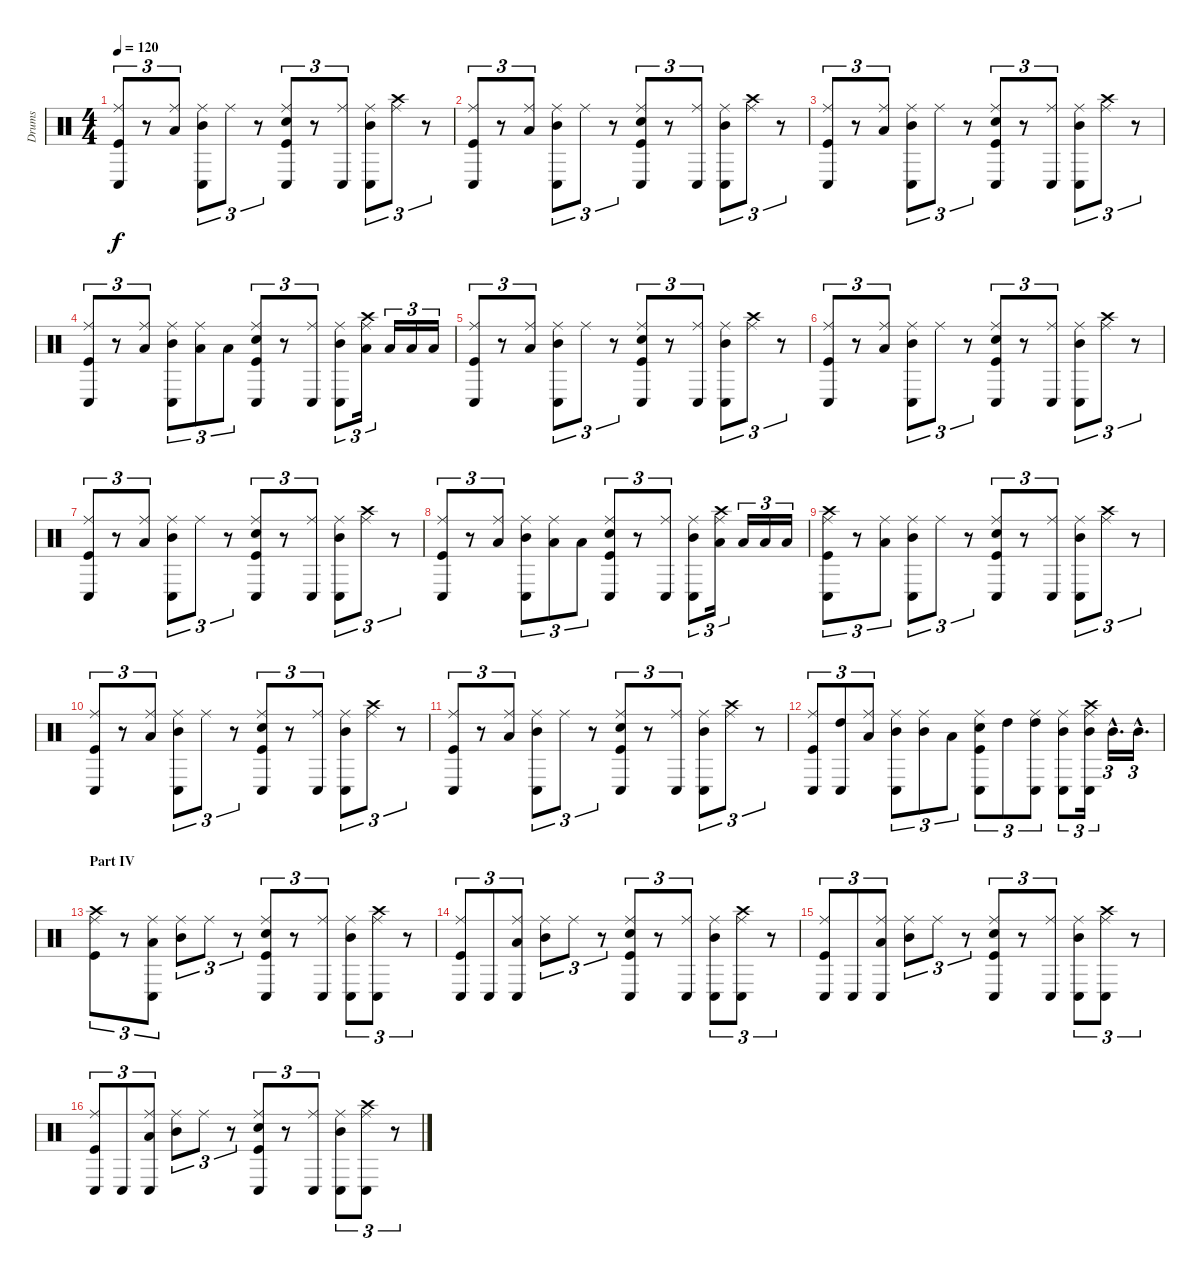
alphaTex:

\track ("Drums" "Drums") {instrument percussion}
\staff {score}
\articulation defaults
\ts (4 4)
\tempo 120
\clef neutral
\ks c
("Kick (hit)" "Ride (middle)" "Conga low (hit)").8{tu (3 2) dy f} r.8{tu (3 2)} ("Low Floor Tom (hit)" "Ride (middle)").8{tu (3 2)} ("Mid Tom (hit)" "Ride (middle)" "Conga low (hit)").8{tu (3 2)} "Ride (middle)".8{tu (3 2)} r.8{tu (3 2)} ("Kick (hit)" "Snare (hit) 2" "Ride (middle)" "Conga low (hit)").8{tu (3 2)} r.8{tu (3 2)} ("Ride (middle)" "Conga low (hit)").8{tu (3 2)} ("Mid Tom (hit)" "Ride (middle)" "Conga low (hit)").8{tu (3 2)} ("Ride (middle)" "Crash high (hit)").8{tu (3 2)} r.8{tu (3 2)} |
("Kick (hit)" "Ride (middle)" "Conga low (hit)").8{tu (3 2)} r.8{tu (3 2)} ("Low Floor Tom (hit)" "Ride (middle)").8{tu (3 2)} ("Mid Tom (hit)" "Ride (middle)" "Conga low (hit)").8{tu (3 2)} "Ride (middle)".8{tu (3 2)} r.8{tu (3 2)} ("Kick (hit)" "Snare (hit) 2" "Ride (middle)" "Conga low (hit)").8{tu (3 2)} r.8{tu (3 2)} ("Ride (middle)" "Conga low (hit)").8{tu (3 2)} ("Mid Tom (hit)" "Ride (middle)" "Conga low (hit)").8{tu (3 2)} ("Ride (middle)" "Crash high (hit)").8{tu (3 2)} r.8{tu (3 2)} |
("Kick (hit)" "Ride (middle)" "Conga low (hit)").8{tu (3 2)} r.8{tu (3 2)} ("Low Floor Tom (hit)" "Ride (middle)").8{tu (3 2)} ("Mid Tom (hit)" "Ride (middle)" "Conga low (hit)").8{tu (3 2)} "Ride (middle)".8{tu (3 2)} r.8{tu (3 2)} ("Kick (hit)" "Snare (hit) 2" "Ride (middle)" "Conga low (hit)").8{tu (3 2)} r.8{tu (3 2)} ("Ride (middle)" "Conga low (hit)").8{tu (3 2)} ("Mid Tom (hit)" "Ride (middle)" "Conga low (hit)").8{tu (3 2)} ("Ride (middle)" "Crash high (hit)").8{tu (3 2)} r.8{tu (3 2)} |
("Kick (hit)" "Ride (middle)" "Conga low (hit)").8{tu (3 2)} r.8{tu (3 2)} ("Low Floor Tom (hit)" "Ride (middle)").8{tu (3 2)} ("Mid Tom (hit)" "Ride (middle)" "Conga low (hit)").8{tu (3 2)} ("Low Tom (hit)" "Ride (middle)").8{tu (3 2)} "Low Tom (hit)".8{tu (3 2)} ("Kick (hit)" "Snare (hit) 2" "Ride (middle)" "Conga low (hit)").8{tu (3 2)} r.8{tu (3 2)} ("Ride (middle)" "Conga low (hit)").8{tu (3 2)} ("Mid Tom (hit)" "Ride (middle)" "Conga low (hit)").8{tu (3 2)} ("Low Tom (hit)" "Ride (middle)" "Crash high (hit)").16{tu (3 2)} "Low Tom (hit)".16{tu (3 2)} "Low Tom (hit)".16{tu (3 2)} "Low Tom (hit)".16{tu (3 2)} |
("Kick (hit)" "Ride (middle)" "Conga low (hit)").8{tu (3 2)} r.8{tu (3 2)} ("Low Floor Tom (hit)" "Ride (middle)").8{tu (3 2)} ("Mid Tom (hit)" "Ride (middle)" "Conga low (hit)").8{tu (3 2)} "Ride (middle)".8{tu (3 2)} r.8{tu (3 2)} ("Kick (hit)" "Snare (hit) 2" "Ride (middle)" "Conga low (hit)").8{tu (3 2)} r.8{tu (3 2)} ("Ride (middle)" "Conga low (hit)").8{tu (3 2)} ("Mid Tom (hit)" "Ride (middle)" "Conga low (hit)").8{tu (3 2)} ("Ride (middle)" "Crash high (hit)").8{tu (3 2)} r.8{tu (3 2)} |
("Kick (hit)" "Ride (middle)" "Conga low (hit)").8{tu (3 2)} r.8{tu (3 2)} ("Low Floor Tom (hit)" "Ride (middle)").8{tu (3 2)} ("Mid Tom (hit)" "Ride (middle)" "Conga low (hit)").8{tu (3 2)} "Ride (middle)".8{tu (3 2)} r.8{tu (3 2)} ("Kick (hit)" "Snare (hit) 2" "Ride (middle)" "Conga low (hit)").8{tu (3 2)} r.8{tu (3 2)} ("Ride (middle)" "Conga low (hit)").8{tu (3 2)} ("Mid Tom (hit)" "Ride (middle)" "Conga low (hit)").8{tu (3 2)} ("Ride (middle)" "Crash high (hit)").8{tu (3 2)} r.8{tu (3 2)} |
("Kick (hit)" "Ride (middle)" "Conga low (hit)").8{tu (3 2)} r.8{tu (3 2)} ("Low Floor Tom (hit)" "Ride (middle)").8{tu (3 2)} ("Mid Tom (hit)" "Ride (middle)" "Conga low (hit)").8{tu (3 2)} "Ride (middle)".8{tu (3 2)} r.8{tu (3 2)} ("Kick (hit)" "Snare (hit) 2" "Ride (middle)" "Conga low (hit)").8{tu (3 2)} r.8{tu (3 2)} ("Ride (middle)" "Conga low (hit)").8{tu (3 2)} ("Mid Tom (hit)" "Ride (middle)" "Conga low (hit)").8{tu (3 2)} ("Ride (middle)" "Crash high (hit)").8{tu (3 2)} r.8{tu (3 2)} |
("Kick (hit)" "Ride (middle)" "Conga low (hit)").8{tu (3 2)} r.8{tu (3 2)} ("Low Floor Tom (hit)" "Ride (middle)").8{tu (3 2)} ("Mid Tom (hit)" "Ride (middle)" "Conga low (hit)").8{tu (3 2)} ("Low Tom (hit)" "Ride (middle)").8{tu (3 2)} "Low Tom (hit)".8{tu (3 2)} ("Kick (hit)" "Snare (hit) 2" "Ride (middle)" "Conga low (hit)").8{tu (3 2)} r.8{tu (3 2)} ("Ride (middle)" "Conga low (hit)").8{tu (3 2)} ("Mid Tom (hit)" "Ride (middle)" "Conga low (hit)").8{tu (3 2)} ("Low Tom (hit)" "Ride (middle)" "Crash high (hit)").16{tu (3 2)} "Low Tom (hit)".16{tu (3 2)} "Low Tom (hit)".16{tu (3 2)} "Low Tom (hit)".16{tu (3 2)} |
("Kick (hit)" "Ride (middle)" "Crash high (hit)" "Conga low (hit)").8{tu (3 2)} r.8{tu (3 2)} ("Low Floor Tom (hit)" "Ride (middle)").8{tu (3 2)} ("Mid Tom (hit)" "Ride (middle)" "Conga low (hit)").8{tu (3 2)} "Ride (middle)".8{tu (3 2)} r.8{tu (3 2)} ("Kick (hit)" "Snare (hit) 2" "Ride (middle)" "Conga low (hit)").8{tu (3 2)} r.8{tu (3 2)} ("Ride (middle)" "Conga low (hit)").8{tu (3 2)} ("Mid Tom (hit)" "Ride (middle)" "Conga low (hit)").8{tu (3 2)} ("Ride (middle)" "Crash high (hit)").8{tu (3 2)} r.8{tu (3 2)} |
("Kick (hit)" "Ride (middle)" "Conga low (hit)").8{tu (3 2)} r.8{tu (3 2)} ("Low Floor Tom (hit)" "Ride (middle)").8{tu (3 2)} ("Mid Tom (hit)" "Ride (middle)" "Conga low (hit)").8{tu (3 2)} "Ride (middle)".8{tu (3 2)} r.8{tu (3 2)} ("Kick (hit)" "Snare (hit) 2" "Ride (middle)" "Conga low (hit)").8{tu (3 2)} r.8{tu (3 2)} ("Ride (middle)" "Conga low (hit)").8{tu (3 2)} ("Mid Tom (hit)" "Ride (middle)" "Conga low (hit)").8{tu (3 2)} ("Ride (middle)" "Crash high (hit)").8{tu (3 2)} r.8{tu (3 2)} |
("Kick (hit)" "Ride (middle)" "Conga low (hit)").8{tu (3 2)} r.8{tu (3 2)} ("Low Floor Tom (hit)" "Ride (middle)").8{tu (3 2)} ("Mid Tom (hit)" "Ride (middle)" "Conga low (hit)").8{tu (3 2)} "Ride (middle)".8{tu (3 2)} r.8{tu (3 2)} ("Kick (hit)" "Snare (hit) 2" "Ride (middle)" "Conga low (hit)").8{tu (3 2)} r.8{tu (3 2)} ("Ride (middle)" "Conga low (hit)").8{tu (3 2)} ("Mid Tom (hit)" "Ride (middle)" "Conga low (hit)").8{tu (3 2)} ("Ride (middle)" "Crash high (hit)").8{tu (3 2)} r.8{tu (3 2)} |
("Kick (hit)" "Ride (middle)" "Conga low (hit)").8{tu (3 2)} ("High Tom (hit)" "Conga low (hit)").8{tu (3 2)} ("Low Floor Tom (hit)" "Ride (middle)").8{tu (3 2)} ("Mid Tom (hit)" "Ride (middle)" "Conga low (hit)").8{tu (3 2)} ("Mid Tom (hit)" "Ride (middle)").8{tu (3 2)} "Low Tom (hit)".8{tu (3 2)} ("Kick (hit)" "Snare (hit) 2" "Ride (middle)" "Conga low (hit)").8{tu (3 2)} "High Tom (hit)".8{tu (3 2)} ("High Tom (hit)" "Ride (middle)" "Conga low (hit)").8{tu (3 2)} ("Mid Tom (hit)" "Ride (middle)" "Conga low (hit)").8{tu (3 2)} ("Mid Tom (hit)" "Ride (middle)" "Crash high (hit)" "Conga low (hit)").16{tu (3 2)} "Mid Tom (hit)"{hac}.16{d tu (3 2)} "Mid Tom (hit)"{hac}.16{d tu (3 2)} |
\section ("" "Part IV")
("Kick (hit)" "Ride (middle)" "Crash high (hit)").8{tu (3 2)} r.8{tu (3 2)} ("Low Floor Tom (hit)" "Ride (middle)" "Conga low (hit)").8{tu (3 2)} ("Mid Tom (hit)" "Ride (middle)").8{tu (3 2)} "Ride (middle)".8{tu (3 2)} r.8{tu (3 2)} ("Kick (hit)" "Snare (hit) 2" "Ride (middle)" "Conga low (hit)").8{tu (3 2)} r.8{tu (3 2)} ("Ride (middle)" "Conga low (hit)").8{tu (3 2)} ("Mid Tom (hit)" "Ride (middle)" "Conga low (hit)").8{tu (3 2)} ("Ride (middle)" "Crash high (hit)" "Conga low (hit)").8{tu (3 2)} r.8{tu (3 2)} |
("Kick (hit)" "Ride (middle)" "Conga low (hit)").8{tu (3 2)} "Conga low (hit)".8{tu (3 2)} ("Low Floor Tom (hit)" "Ride (middle)" "Conga low (hit)").8{tu (3 2)} ("Mid Tom (hit)" "Ride (middle)").8{tu (3 2)} "Ride (middle)".8{tu (3 2)} r.8{tu (3 2)} ("Kick (hit)" "Snare (hit) 2" "Ride (middle)" "Conga low (hit)").8{tu (3 2)} r.8{tu (3 2)} ("Ride (middle)" "Conga low (hit)").8{tu (3 2)} ("Mid Tom (hit)" "Ride (middle)" "Conga low (hit)").8{tu (3 2)} ("Ride (middle)" "Crash high (hit)" "Conga low (hit)").8{tu (3 2)} r.8{tu (3 2)} |
("Kick (hit)" "Ride (middle)" "Conga low (hit)").8{tu (3 2)} "Conga low (hit)".8{tu (3 2)} ("Low Floor Tom (hit)" "Ride (middle)" "Conga low (hit)").8{tu (3 2)} ("Mid Tom (hit)" "Ride (middle)").8{tu (3 2)} "Ride (middle)".8{tu (3 2)} r.8{tu (3 2)} ("Kick (hit)" "Snare (hit) 2" "Ride (middle)" "Conga low (hit)").8{tu (3 2)} r.8{tu (3 2)} ("Ride (middle)" "Conga low (hit)").8{tu (3 2)} ("Mid Tom (hit)" "Ride (middle)" "Conga low (hit)").8{tu (3 2)} ("Ride (middle)" "Crash high (hit)" "Conga low (hit)").8{tu (3 2)} r.8{tu (3 2)} |
("Kick (hit)" "Ride (middle)" "Conga low (hit)").8{tu (3 2)} "Conga low (hit)".8{tu (3 2)} ("Low Floor Tom (hit)" "Ride (middle)" "Conga low (hit)").8{tu (3 2)} ("Mid Tom (hit)" "Ride (middle)").8{tu (3 2)} "Ride (middle)".8{tu (3 2)} r.8{tu (3 2)} ("Kick (hit)" "Snare (hit) 2" "Ride (middle)" "Conga low (hit)").8{tu (3 2)} r.8{tu (3 2)} ("Ride (middle)" "Conga low (hit)").8{tu (3 2)} ("Mid Tom (hit)" "Ride (middle)" "Conga low (hit)").8{tu (3 2)} ("Ride (middle)" "Crash high (hit)" "Conga low (hit)").8{tu (3 2)} r.8{tu (3 2)}
